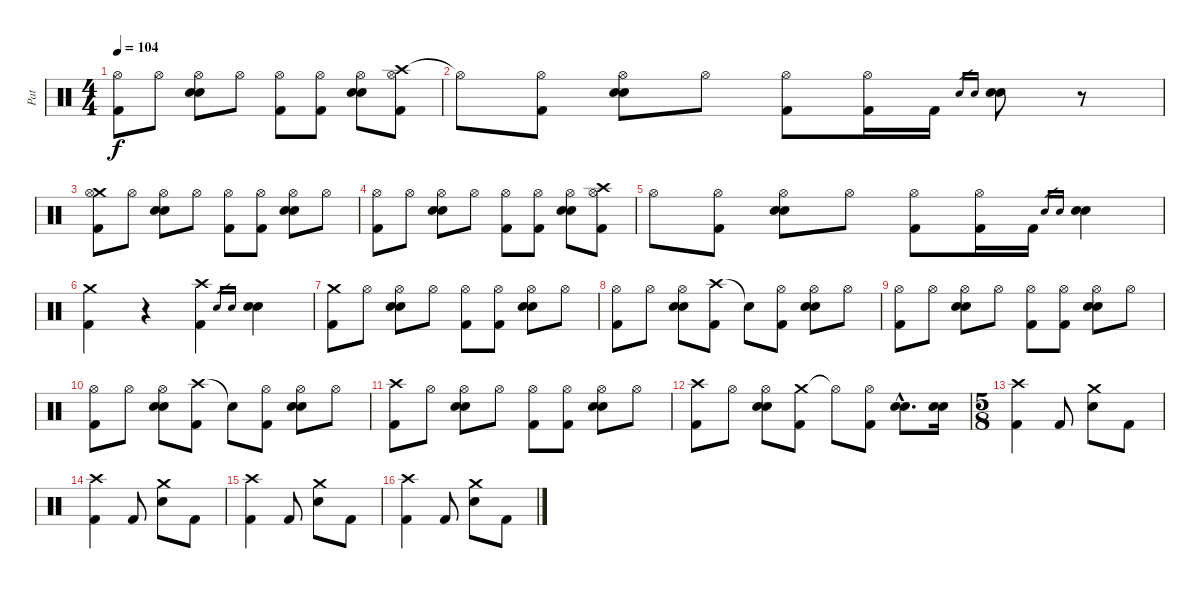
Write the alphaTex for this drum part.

\track ("Pat" "Pat") {instrument percussion}
\staff {score}
\articulation defaults
\ts (4 4)
\tempo 104
\clef neutral
\ks c
("Hi-Hat (open)" "Kick (hit) 2").8{dy f} "Hi-Hat (open)".8 ("Hi-Hat (open)" "Electric Snare (hit)" "Snare (hit) 2").8 "Hi-Hat (open)".8 ("Hi-Hat (open)" "Kick (hit) 2").8 ("Hi-Hat (open)" "Kick (hit) 2").8 ("Hi-Hat (open)" "Electric Snare (hit)" "Snare (hit) 2").8 ("Crash high (hit)" "Hi-Hat (open)" "Kick (hit) 2").8 |
"Hi-Hat (open)"{t}.8 ("Hi-Hat (open)" "Kick (hit) 2").8 ("Hi-Hat (open)" "Electric Snare (hit)" "Snare (hit) 2").8 "Hi-Hat (open)".8 ("Hi-Hat (open)" "Kick (hit) 2").8 ("Hi-Hat (open)" "Kick (hit) 2").16 "Kick (hit) 2".16 "Electric Snare (hit)".16{gr} "Snare (hit) 2".16{gr} ("Electric Snare (hit)" "Snare (hit) 2").8 r.8 |
("Crash medium (hit)" "Hi-Hat (open)" "Kick (hit) 2").8 "Hi-Hat (open)".8 ("Hi-Hat (open)" "Electric Snare (hit)" "Snare (hit) 2").8 "Hi-Hat (open)".8 ("Hi-Hat (open)" "Kick (hit) 2").8 ("Hi-Hat (open)" "Kick (hit) 2").8 ("Hi-Hat (open)" "Electric Snare (hit)" "Snare (hit) 2").8 "Hi-Hat (open)".8 |
("Hi-Hat (open)" "Kick (hit) 2").8 "Hi-Hat (open)".8 ("Hi-Hat (open)" "Electric Snare (hit)" "Snare (hit) 2").8 "Hi-Hat (open)".8 ("Hi-Hat (open)" "Kick (hit) 2").8 ("Hi-Hat (open)" "Kick (hit) 2").8 ("Hi-Hat (open)" "Electric Snare (hit)" "Snare (hit) 2").8 ("Crash high (hit)" "Hi-Hat (open)" "Kick (hit) 2").8 |
"Hi-Hat (open)".8 ("Hi-Hat (open)" "Kick (hit) 2").8 ("Hi-Hat (open)" "Electric Snare (hit)" "Snare (hit) 2").8 "Hi-Hat (open)".8 ("Hi-Hat (open)" "Kick (hit) 2").8 ("Hi-Hat (open)" "Kick (hit) 2").16 "Kick (hit) 2".16 "Electric Snare (hit)".16{gr} "Snare (hit) 2".16{gr} ("Electric Snare (hit)" "Snare (hit) 2").4 |
("Crash medium (hit)" "Kick (hit) 2").4 r.4 ("Crash high (hit)" "Kick (hit) 2").4 "Electric Snare (hit)".16{gr} "Snare (hit) 2".16{gr} ("Electric Snare (hit)" "Snare (hit) 2").4 |
("Crash medium (hit)" "Kick (hit) 2").8 "Hi-Hat (open)".8 ("Hi-Hat (open)" "Electric Snare (hit)" "Snare (hit) 2").8 "Hi-Hat (open)".8 ("Hi-Hat (open)" "Kick (hit) 2").8 ("Hi-Hat (open)" "Kick (hit) 2").8 ("Hi-Hat (open)" "Electric Snare (hit)" "Snare (hit) 2").8 "Hi-Hat (open)".8 |
("Hi-Hat (open)" "Kick (hit) 2").8 "Hi-Hat (open)".8 ("Hi-Hat (open)" "Electric Snare (hit)" "Snare (hit) 2").8 ("Crash high (hit)" "Kick (hit) 2").8 "Snare (hit)"{t}.8 ("Hi-Hat (open)" "Kick (hit) 2").8 ("Hi-Hat (open)" "Electric Snare (hit)" "Snare (hit) 2").8 "Hi-Hat (open)".8 |
("Hi-Hat (open)" "Kick (hit) 2").8 "Hi-Hat (open)".8 ("Hi-Hat (open)" "Electric Snare (hit)" "Snare (hit) 2").8 "Hi-Hat (open)".8 ("Hi-Hat (open)" "Kick (hit) 2").8 ("Hi-Hat (open)" "Kick (hit) 2").8 ("Hi-Hat (open)" "Electric Snare (hit)" "Snare (hit) 2").8 "Hi-Hat (open)".8 |
("Hi-Hat (open)" "Kick (hit) 2").8 "Hi-Hat (open)".8 ("Hi-Hat (open)" "Electric Snare (hit)" "Snare (hit) 2").8 ("Crash high (hit)" "Kick (hit) 2").8 "Snare (hit)"{t}.8 ("Hi-Hat (open)" "Kick (hit) 2").8 ("Hi-Hat (open)" "Electric Snare (hit)" "Snare (hit) 2").8 "Hi-Hat (open)".8 |
("Crash high (hit)" "Kick (hit) 2").8 "Hi-Hat (open)".8 ("Hi-Hat (open)" "Electric Snare (hit)" "Snare (hit) 2").8 "Hi-Hat (open)".8 ("Hi-Hat (open)" "Kick (hit) 2").8 ("Hi-Hat (open)" "Kick (hit) 2").8 ("Hi-Hat (open)" "Electric Snare (hit)" "Snare (hit) 2").8 "Hi-Hat (open)".8 |
("Crash high (hit)" "Kick (hit) 2").8 "Hi-Hat (open)".8 ("Hi-Hat (open)" "Electric Snare (hit)" "Snare (hit) 2").8 ("Crash medium (hit)" "Kick (hit) 2").8 "Hi-Hat (open)"{t}.8 ("Hi-Hat (open)" "Kick (hit) 2").8 ("Electric Snare (hit)"{hac} "Snare (hit) 2"{hac}).8{d} ("Electric Snare (hit)" "Snare (hit) 2").16 |
\ts (5 8)
("Crash high (hit)" "Kick (hit) 2").4 "Kick (hit) 2".8 ("Crash medium (hit)" "Electric Snare (hit)").8 "Kick (hit) 2".8 |
("Crash high (hit)" "Kick (hit) 2").4 "Kick (hit) 2".8 ("Crash medium (hit)" "Electric Snare (hit)").8 "Kick (hit) 2".8 |
("Crash high (hit)" "Kick (hit) 2").4 "Kick (hit) 2".8 ("Crash medium (hit)" "Electric Snare (hit)").8 "Kick (hit) 2".8 |
("Crash high (hit)" "Kick (hit) 2").4 "Kick (hit) 2".8 ("Crash medium (hit)" "Electric Snare (hit)").8 "Kick (hit) 2".8
